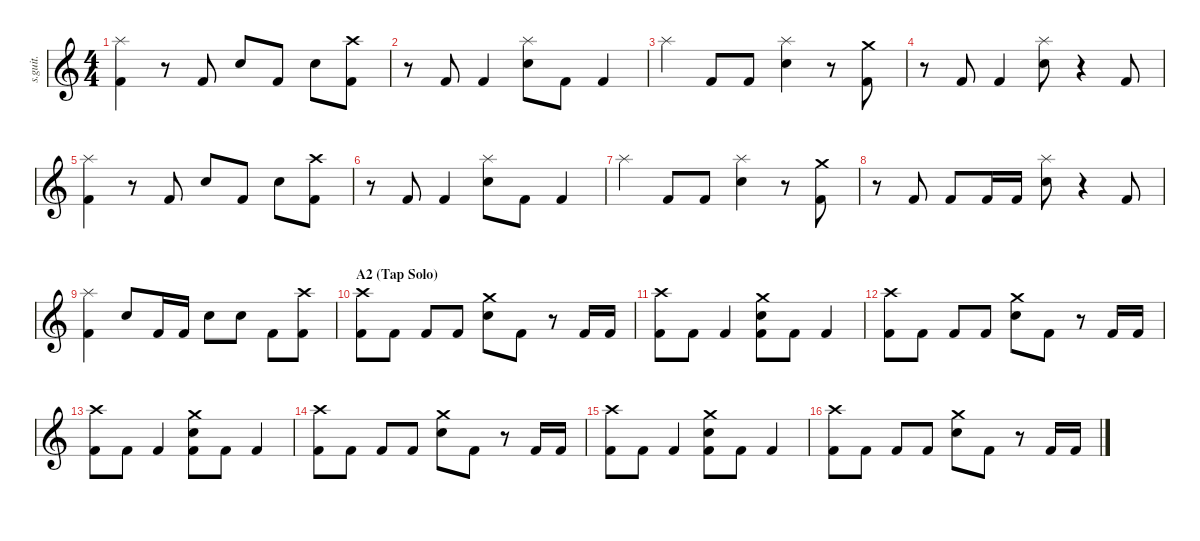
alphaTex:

\defaultSystemsLayout 4
\hideDynamics
\bracketExtendMode nobrackets
\track ("Batterie" "s.guit.") {instrument percussion}
\staff {score}
\articulation defaults
\ts (4 4)
\tempo (170 hide)
\clef g2
\ks c
("Splash (hit)" "Kick (hit) 2").4{lyrics (0 "") lyrics (1 "") lyrics (2 "") lyrics (3 "") lyrics (4 "") dy fff} r.8 "Kick (hit) 2".8{lyrics (0 "") lyrics (1 "") lyrics (2 "") lyrics (3 "") lyrics (4 "")} "Electric Snare (hit)".8{lyrics (0 "") lyrics (1 "") lyrics (2 "") lyrics (3 "") lyrics (4 "")} "Kick (hit) 2".8{lyrics (0 "") lyrics (1 "") lyrics (2 "") lyrics (3 "") lyrics (4 "")} "Electric Snare (hit)".8{lyrics (0 "") lyrics (1 "") lyrics (2 "") lyrics (3 "") lyrics (4 "")} ("Crash high (hit)" "Kick (hit) 2").8{lyrics (0 "") lyrics (1 "") lyrics (2 "") lyrics (3 "") lyrics (4 "")} |
r.8 "Kick (hit) 2".8{lyrics (0 "") lyrics (1 "") lyrics (2 "") lyrics (3 "") lyrics (4 "")} "Kick (hit) 2".4{lyrics (0 "") lyrics (1 "") lyrics (2 "") lyrics (3 "") lyrics (4 "")} ("Splash (hit)" "Electric Snare (hit)").8{lyrics (0 "") lyrics (1 "") lyrics (2 "") lyrics (3 "") lyrics (4 "")} "Kick (hit) 2".8{lyrics (0 "") lyrics (1 "") lyrics (2 "") lyrics (3 "") lyrics (4 "")} "Kick (hit) 2".4{lyrics (0 "") lyrics (1 "") lyrics (2 "") lyrics (3 "") lyrics (4 "")} |
"Splash (hit)".4{lyrics (0 "") lyrics (1 "") lyrics (2 "") lyrics (3 "") lyrics (4 "")} "Kick (hit) 2".8{lyrics (0 "") lyrics (1 "") lyrics (2 "") lyrics (3 "") lyrics (4 "")} "Kick (hit) 2".8{lyrics (0 "") lyrics (1 "") lyrics (2 "") lyrics (3 "") lyrics (4 "")} ("Splash (hit)" "Electric Snare (hit)").4{lyrics (0 "") lyrics (1 "") lyrics (2 "") lyrics (3 "") lyrics (4 "")} r.8 ("Crash medium (hit)" "Kick (hit) 2").8{lyrics (0 "") lyrics (1 "") lyrics (2 "") lyrics (3 "") lyrics (4 "")} |
r.8 "Kick (hit) 2".8{lyrics (0 "") lyrics (1 "") lyrics (2 "") lyrics (3 "") lyrics (4 "")} "Kick (hit) 2".4{lyrics (0 "") lyrics (1 "") lyrics (2 "") lyrics (3 "") lyrics (4 "")} ("Splash (hit)" "Electric Snare (hit)").8{lyrics (0 "") lyrics (1 "") lyrics (2 "") lyrics (3 "") lyrics (4 "")} r.4 "Kick (hit) 2".8{lyrics (0 "") lyrics (1 "") lyrics (2 "") lyrics (3 "") lyrics (4 "")} |
("Splash (hit)" "Kick (hit) 2").4{lyrics (0 "") lyrics (1 "") lyrics (2 "") lyrics (3 "") lyrics (4 "")} r.8 "Kick (hit) 2".8{lyrics (0 "") lyrics (1 "") lyrics (2 "") lyrics (3 "") lyrics (4 "")} "Electric Snare (hit)".8{lyrics (0 "") lyrics (1 "") lyrics (2 "") lyrics (3 "") lyrics (4 "")} "Kick (hit) 2".8{lyrics (0 "") lyrics (1 "") lyrics (2 "") lyrics (3 "") lyrics (4 "")} "Electric Snare (hit)".8{lyrics (0 "") lyrics (1 "") lyrics (2 "") lyrics (3 "") lyrics (4 "")} ("Crash high (hit)" "Kick (hit) 2").8{lyrics (0 "") lyrics (1 "") lyrics (2 "") lyrics (3 "") lyrics (4 "")} |
r.8 "Kick (hit) 2".8{lyrics (0 "") lyrics (1 "") lyrics (2 "") lyrics (3 "") lyrics (4 "")} "Kick (hit) 2".4{lyrics (0 "") lyrics (1 "") lyrics (2 "") lyrics (3 "") lyrics (4 "")} ("Splash (hit)" "Electric Snare (hit)").8{lyrics (0 "") lyrics (1 "") lyrics (2 "") lyrics (3 "") lyrics (4 "")} "Kick (hit) 2".8{lyrics (0 "") lyrics (1 "") lyrics (2 "") lyrics (3 "") lyrics (4 "")} "Kick (hit) 2".4{lyrics (0 "") lyrics (1 "") lyrics (2 "") lyrics (3 "") lyrics (4 "")} |
"Splash (hit)".4{lyrics (0 "") lyrics (1 "") lyrics (2 "") lyrics (3 "") lyrics (4 "")} "Kick (hit) 2".8{lyrics (0 "") lyrics (1 "") lyrics (2 "") lyrics (3 "") lyrics (4 "")} "Kick (hit) 2".8{lyrics (0 "") lyrics (1 "") lyrics (2 "") lyrics (3 "") lyrics (4 "")} ("Splash (hit)" "Electric Snare (hit)").4{lyrics (0 "") lyrics (1 "") lyrics (2 "") lyrics (3 "") lyrics (4 "")} r.8 ("Crash medium (hit)" "Kick (hit) 2").8{lyrics (0 "") lyrics (1 "") lyrics (2 "") lyrics (3 "") lyrics (4 "")} |
r.8 "Kick (hit) 2".8{lyrics (0 "") lyrics (1 "") lyrics (2 "") lyrics (3 "") lyrics (4 "")} "Kick (hit) 2".8{lyrics (0 "") lyrics (1 "") lyrics (2 "") lyrics (3 "") lyrics (4 "")} "Kick (hit) 2".16{lyrics (0 "") lyrics (1 "") lyrics (2 "") lyrics (3 "") lyrics (4 "")} "Kick (hit) 2".16{lyrics (0 "") lyrics (1 "") lyrics (2 "") lyrics (3 "") lyrics (4 "")} ("Splash (hit)" "Electric Snare (hit)").8{lyrics (0 "") lyrics (1 "") lyrics (2 "") lyrics (3 "") lyrics (4 "")} r.4 "Kick (hit) 2".8{lyrics (0 "") lyrics (1 "") lyrics (2 "") lyrics (3 "") lyrics (4 "")} |
("Splash (hit)" "Kick (hit) 2").4{lyrics (0 "") lyrics (1 "") lyrics (2 "") lyrics (3 "") lyrics (4 "")} "Electric Snare (hit)".8{lyrics (0 "") lyrics (1 "") lyrics (2 "") lyrics (3 "") lyrics (4 "")} "Kick (hit) 2".16{lyrics (0 "") lyrics (1 "") lyrics (2 "") lyrics (3 "") lyrics (4 "")} "Kick (hit) 2".16{lyrics (0 "") lyrics (1 "") lyrics (2 "") lyrics (3 "") lyrics (4 "")} "Electric Snare (hit)".8{lyrics (0 "") lyrics (1 "") lyrics (2 "") lyrics (3 "") lyrics (4 "")} "Electric Snare (hit)".8{lyrics (0 "") lyrics (1 "") lyrics (2 "") lyrics (3 "") lyrics (4 "")} "Kick (hit) 2".8{lyrics (0 "") lyrics (1 "") lyrics (2 "") lyrics (3 "") lyrics (4 "")} ("Crash high (hit)" "Kick (hit) 2").8{lyrics (0 "") lyrics (1 "") lyrics (2 "") lyrics (3 "") lyrics (4 "")} |
\section ("" "A2 (Tap Solo)")
("Crash high (hit)" "Kick (hit) 2").8{lyrics (0 "") lyrics (1 "") lyrics (2 "") lyrics (3 "") lyrics (4 "") dy f} "Kick (hit) 2".8{lyrics (0 "") lyrics (1 "") lyrics (2 "") lyrics (3 "") lyrics (4 "") dy fff} "Kick (hit) 2".8{lyrics (0 "") lyrics (1 "") lyrics (2 "") lyrics (3 "") lyrics (4 "")} "Kick (hit) 2".8{lyrics (0 "") lyrics (1 "") lyrics (2 "") lyrics (3 "") lyrics (4 "")} ("Crash medium (hit)" "Electric Snare (hit)").8{lyrics (0 "") lyrics (1 "") lyrics (2 "") lyrics (3 "") lyrics (4 "") dy f} "Kick (hit) 2".8{lyrics (0 "") lyrics (1 "") lyrics (2 "") lyrics (3 "") lyrics (4 "") dy fff} r.8 "Kick (hit) 2".16{lyrics (0 "") lyrics (1 "") lyrics (2 "") lyrics (3 "") lyrics (4 "")} "Kick (hit) 2".16{lyrics (0 "") lyrics (1 "") lyrics (2 "") lyrics (3 "") lyrics (4 "")} |
("Crash high (hit)" "Kick (hit) 2").8{lyrics (0 "") lyrics (1 "") lyrics (2 "") lyrics (3 "") lyrics (4 "") dy f} "Kick (hit) 2".8{lyrics (0 "") lyrics (1 "") lyrics (2 "") lyrics (3 "") lyrics (4 "") dy fff} "Kick (hit) 2".4{lyrics (0 "") lyrics (1 "") lyrics (2 "") lyrics (3 "") lyrics (4 "")} ("Crash medium (hit)" "Electric Snare (hit)" "Kick (hit) 2").8{lyrics (0 "") lyrics (1 "") lyrics (2 "") lyrics (3 "") lyrics (4 "") dy f} "Kick (hit) 2".8{lyrics (0 "") lyrics (1 "") lyrics (2 "") lyrics (3 "") lyrics (4 "") dy fff} "Kick (hit) 2".4{lyrics (0 "") lyrics (1 "") lyrics (2 "") lyrics (3 "") lyrics (4 "")} |
("Crash high (hit)" "Kick (hit) 2").8{lyrics (0 "") lyrics (1 "") lyrics (2 "") lyrics (3 "") lyrics (4 "") dy f} "Kick (hit) 2".8{lyrics (0 "") lyrics (1 "") lyrics (2 "") lyrics (3 "") lyrics (4 "") dy fff} "Kick (hit) 2".8{lyrics (0 "") lyrics (1 "") lyrics (2 "") lyrics (3 "") lyrics (4 "")} "Kick (hit) 2".8{lyrics (0 "") lyrics (1 "") lyrics (2 "") lyrics (3 "") lyrics (4 "")} ("Crash medium (hit)" "Electric Snare (hit)").8{lyrics (0 "") lyrics (1 "") lyrics (2 "") lyrics (3 "") lyrics (4 "") dy f} "Kick (hit) 2".8{lyrics (0 "") lyrics (1 "") lyrics (2 "") lyrics (3 "") lyrics (4 "") dy fff} r.8 "Kick (hit) 2".16{lyrics (0 "") lyrics (1 "") lyrics (2 "") lyrics (3 "") lyrics (4 "")} "Kick (hit) 2".16{lyrics (0 "") lyrics (1 "") lyrics (2 "") lyrics (3 "") lyrics (4 "")} |
("Crash high (hit)" "Kick (hit) 2").8{lyrics (0 "") lyrics (1 "") lyrics (2 "") lyrics (3 "") lyrics (4 "") dy f} "Kick (hit) 2".8{lyrics (0 "") lyrics (1 "") lyrics (2 "") lyrics (3 "") lyrics (4 "") dy fff} "Kick (hit) 2".4{lyrics (0 "") lyrics (1 "") lyrics (2 "") lyrics (3 "") lyrics (4 "")} ("Crash medium (hit)" "Electric Snare (hit)" "Kick (hit) 2").8{lyrics (0 "") lyrics (1 "") lyrics (2 "") lyrics (3 "") lyrics (4 "") dy f} "Kick (hit) 2".8{lyrics (0 "") lyrics (1 "") lyrics (2 "") lyrics (3 "") lyrics (4 "") dy fff} "Kick (hit) 2".4{lyrics (0 "") lyrics (1 "") lyrics (2 "") lyrics (3 "") lyrics (4 "")} |
("Crash high (hit)" "Kick (hit) 2").8{lyrics (0 "") lyrics (1 "") lyrics (2 "") lyrics (3 "") lyrics (4 "") dy f} "Kick (hit) 2".8{lyrics (0 "") lyrics (1 "") lyrics (2 "") lyrics (3 "") lyrics (4 "") dy fff} "Kick (hit) 2".8{lyrics (0 "") lyrics (1 "") lyrics (2 "") lyrics (3 "") lyrics (4 "")} "Kick (hit) 2".8{lyrics (0 "") lyrics (1 "") lyrics (2 "") lyrics (3 "") lyrics (4 "")} ("Crash medium (hit)" "Electric Snare (hit)").8{lyrics (0 "") lyrics (1 "") lyrics (2 "") lyrics (3 "") lyrics (4 "") dy f} "Kick (hit) 2".8{lyrics (0 "") lyrics (1 "") lyrics (2 "") lyrics (3 "") lyrics (4 "") dy fff} r.8 "Kick (hit) 2".16{lyrics (0 "") lyrics (1 "") lyrics (2 "") lyrics (3 "") lyrics (4 "")} "Kick (hit) 2".16{lyrics (0 "") lyrics (1 "") lyrics (2 "") lyrics (3 "") lyrics (4 "")} |
("Crash high (hit)" "Kick (hit) 2").8{lyrics (0 "") lyrics (1 "") lyrics (2 "") lyrics (3 "") lyrics (4 "") dy f} "Kick (hit) 2".8{lyrics (0 "") lyrics (1 "") lyrics (2 "") lyrics (3 "") lyrics (4 "") dy fff} "Kick (hit) 2".4{lyrics (0 "") lyrics (1 "") lyrics (2 "") lyrics (3 "") lyrics (4 "")} ("Crash medium (hit)" "Electric Snare (hit)" "Kick (hit) 2").8{lyrics (0 "") lyrics (1 "") lyrics (2 "") lyrics (3 "") lyrics (4 "") dy f} "Kick (hit) 2".8{lyrics (0 "") lyrics (1 "") lyrics (2 "") lyrics (3 "") lyrics (4 "") dy fff} "Kick (hit) 2".4{lyrics (0 "") lyrics (1 "") lyrics (2 "") lyrics (3 "") lyrics (4 "")} |
("Crash high (hit)" "Kick (hit) 2").8{lyrics (0 "") lyrics (1 "") lyrics (2 "") lyrics (3 "") lyrics (4 "") dy f} "Kick (hit) 2".8{lyrics (0 "") lyrics (1 "") lyrics (2 "") lyrics (3 "") lyrics (4 "") dy fff} "Kick (hit) 2".8{lyrics (0 "") lyrics (1 "") lyrics (2 "") lyrics (3 "") lyrics (4 "")} "Kick (hit) 2".8{lyrics (0 "") lyrics (1 "") lyrics (2 "") lyrics (3 "") lyrics (4 "")} ("Crash medium (hit)" "Electric Snare (hit)").8{lyrics (0 "") lyrics (1 "") lyrics (2 "") lyrics (3 "") lyrics (4 "") dy f} "Kick (hit) 2".8{lyrics (0 "") lyrics (1 "") lyrics (2 "") lyrics (3 "") lyrics (4 "") dy fff} r.8 "Kick (hit) 2".16{lyrics (0 "") lyrics (1 "") lyrics (2 "") lyrics (3 "") lyrics (4 "")} "Kick (hit) 2".16{lyrics (0 "") lyrics (1 "") lyrics (2 "") lyrics (3 "") lyrics (4 "")}
